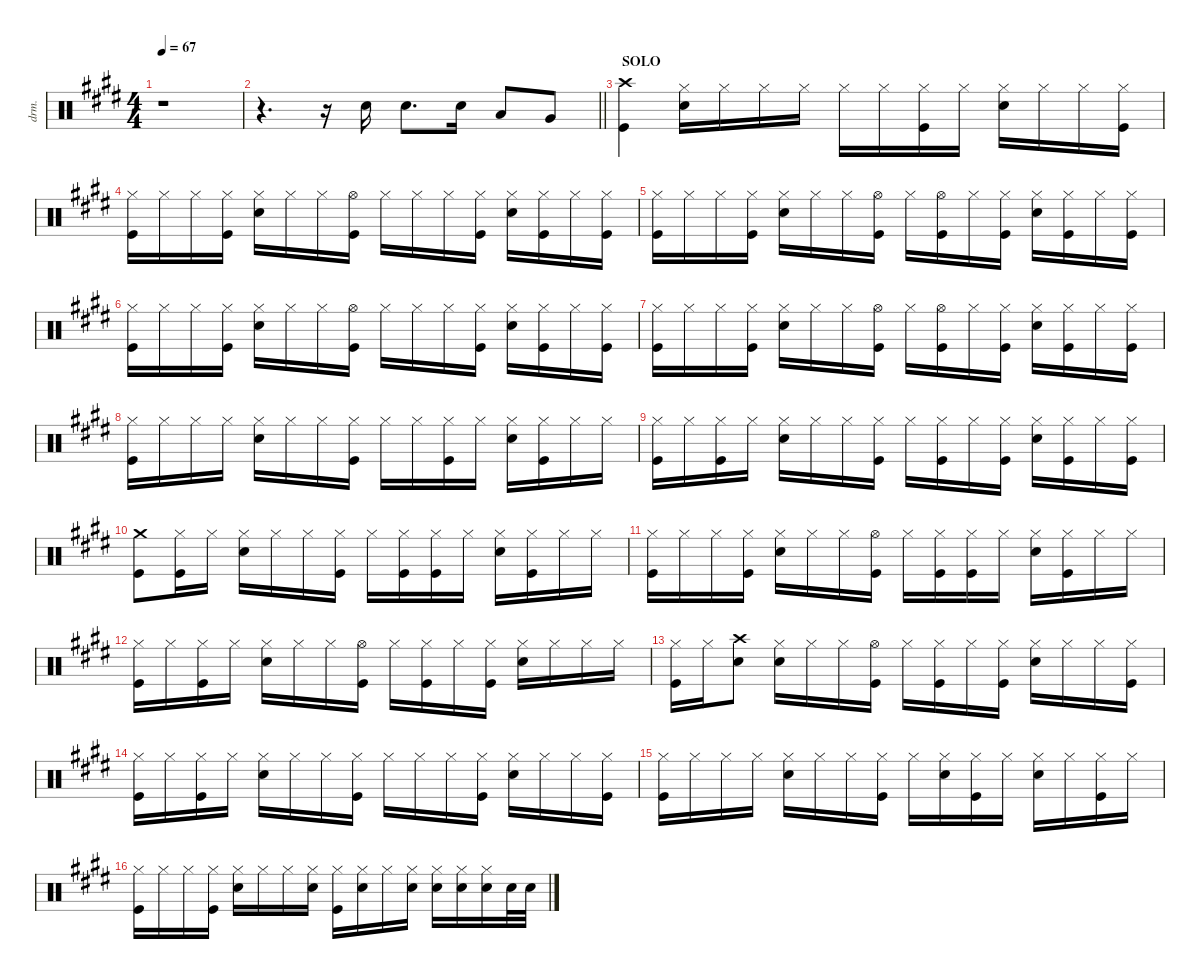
\defaultSystemsLayout 4
\hideDynamics
\bracketExtendMode groupsimilarinstruments
\otherSystemsTrackNameOrientation horizontal
\track ("Drums" "drm.") {defaultSystemsLayout 4 instrument percussion}
\staff {score}
\articulation defaults
\ts (4 4)
\tempo 67
\clef neutral
\ks c#minor
r.1{dy mf beam Down} |
\barLineRight lightlight
r.4{d beam Down} r.16{beam Down} "Snare (hit) 2"{acc forcenatural}.16{dy f beam Down} "Snare (hit) 2"{acc forcenatural}.8{d dy ff beam Down} "Snare (hit) 2"{acc forcenatural}.16{dy f beam Down} "Low Tom (hit)"{acc forcenatural}.8{dy fff beam Up} "Very Low Tom (hit)"{acc forcenatural}.8{beam Up} |
\section ("" " SOLO")
("Crash high (hit)"{acc forcenatural} "Kick (hit)"{acc forcenatural}).4{dy ff beam Down} ("Hi-Hat (closed)"{acc forcenatural} "Snare (hit) 2"{acc forcenatural}).16{dy f beam Down} "Hi-Hat (closed)"{acc forcenatural}.16{beam Down} "Hi-Hat (closed)"{acc forcenatural}.16{beam Down} "Hi-Hat (closed)"{acc forcenatural}.16{beam Down} "Hi-Hat (closed)"{acc forcenatural}.16{beam Down} "Hi-Hat (closed)"{acc forcenatural}.16{beam Down} ("Hi-Hat (closed)"{acc forcenatural} "Kick (hit)"{acc forcenatural}).16{beam Down} "Hi-Hat (closed)"{acc forcenatural}.16{beam Down} ("Hi-Hat (closed)"{acc forcenatural} "Snare (hit) 2"{acc forcenatural}).16{beam Down} "Hi-Hat (closed)"{acc forcenatural}.16{beam Down} "Hi-Hat (closed)"{acc forcenatural}.16{beam Down} ("Hi-Hat (closed)"{acc forcenatural} "Kick (hit)"{acc forcenatural}).16{beam Down} |
("Kick (hit)"{acc forcenatural} "Hi-Hat (closed)"{acc forcenatural}).16{beam Down} "Hi-Hat (closed)"{acc forcenatural}.16{beam Down} "Hi-Hat (closed)"{acc forcenatural}.16{beam Down} ("Kick (hit)"{acc forcenatural} "Hi-Hat (closed)"{acc forcenatural}).16{beam Down} ("Snare (hit) 2"{acc forcenatural} "Hi-Hat (closed)"{acc forcenatural}).16{beam Down} "Hi-Hat (closed)"{acc forcenatural}.16{beam Down} "Hi-Hat (closed)"{acc forcenatural}.16{beam Down} ("Kick (hit)"{acc forcenatural} "Hi-Hat (open)"{acc forcenatural}).16{beam Down} "Hi-Hat (closed)"{acc forcenatural}.16{beam Down} "Hi-Hat (closed)"{acc forcenatural}.16{beam Down} "Hi-Hat (closed)"{acc forcenatural}.16{beam Down} ("Kick (hit)"{acc forcenatural} "Hi-Hat (closed)"{acc forcenatural}).16{beam Down} ("Snare (hit) 2"{acc forcenatural} "Hi-Hat (closed)"{acc forcenatural}).16{beam Down} ("Kick (hit)"{acc forcenatural} "Hi-Hat (closed)"{acc forcenatural}).16{beam Down} "Hi-Hat (closed)"{acc forcenatural}.16{beam Down} ("Kick (hit)"{acc forcenatural} "Hi-Hat (closed)"{acc forcenatural}).16{beam Down} |
("Kick (hit)"{acc forcenatural} "Hi-Hat (closed)"{acc forcenatural}).16{beam Down} "Hi-Hat (closed)"{acc forcenatural}.16{beam Down} "Hi-Hat (closed)"{acc forcenatural}.16{beam Down} ("Kick (hit)"{acc forcenatural} "Hi-Hat (closed)"{acc forcenatural}).16{beam Down} ("Snare (hit) 2"{acc forcenatural} "Hi-Hat (closed)"{acc forcenatural}).16{beam Down} "Hi-Hat (closed)"{acc forcenatural}.16{beam Down} "Hi-Hat (closed)"{acc forcenatural}.16{beam Down} ("Kick (hit)"{acc forcenatural} "Hi-Hat (open)"{acc forcenatural}).16{beam Down} "Hi-Hat (closed)"{acc forcenatural}.16{beam Down} ("Kick (hit)"{acc forcenatural} "Hi-Hat (open)"{acc forcenatural}).16{beam Down} "Hi-Hat (closed)"{acc forcenatural}.16{beam Down} ("Kick (hit)"{acc forcenatural} "Hi-Hat (closed)"{acc forcenatural}).16{beam Down} ("Snare (hit) 2"{acc forcenatural} "Hi-Hat (closed)"{acc forcenatural}).16{beam Down} ("Kick (hit)"{acc forcenatural} "Hi-Hat (closed)"{acc forcenatural}).16{beam Down} "Hi-Hat (closed)"{acc forcenatural}.16{beam Down} ("Kick (hit)"{acc forcenatural} "Hi-Hat (closed)"{acc forcenatural}).16{beam Down} |
("Hi-Hat (closed)"{acc forcenatural} "Kick (hit)"{acc forcenatural}).16{beam Down} "Hi-Hat (closed)"{acc forcenatural}.16{beam Down} "Hi-Hat (closed)"{acc forcenatural}.16{beam Down} ("Hi-Hat (closed)"{acc forcenatural} "Kick (hit)"{acc forcenatural}).16{beam Down} ("Hi-Hat (closed)"{acc forcenatural} "Snare (hit) 2"{acc forcenatural}).16{beam Down} "Hi-Hat (closed)"{acc forcenatural}.16{beam Down} "Hi-Hat (closed)"{acc forcenatural}.16{beam Down} ("Hi-Hat (open)"{acc forcenatural} "Kick (hit)"{acc forcenatural}).16{beam Down} "Hi-Hat (closed)"{acc forcenatural}.16{beam Down} "Hi-Hat (closed)"{acc forcenatural}.16{beam Down} "Hi-Hat (closed)"{acc forcenatural}.16{beam Down} ("Hi-Hat (closed)"{acc forcenatural} "Kick (hit)"{acc forcenatural}).16{beam Down} ("Hi-Hat (closed)"{acc forcenatural} "Snare (hit) 2"{acc forcenatural}).16{beam Down} ("Hi-Hat (closed)"{acc forcenatural} "Kick (hit)"{acc forcenatural}).16{beam Down} "Hi-Hat (closed)"{acc forcenatural}.16{beam Down} ("Hi-Hat (closed)"{acc forcenatural} "Kick (hit)"{acc forcenatural}).16{beam Down} |
("Hi-Hat (closed)"{acc forcenatural} "Kick (hit)"{acc forcenatural}).16{beam Down} "Hi-Hat (closed)"{acc forcenatural}.16{beam Down} "Hi-Hat (closed)"{acc forcenatural}.16{beam Down} ("Hi-Hat (closed)"{acc forcenatural} "Kick (hit)"{acc forcenatural}).16{beam Down} ("Hi-Hat (closed)"{acc forcenatural} "Snare (hit) 2"{acc forcenatural}).16{beam Down} "Hi-Hat (closed)"{acc forcenatural}.16{beam Down} "Hi-Hat (closed)"{acc forcenatural}.16{beam Down} ("Hi-Hat (open)"{acc forcenatural} "Kick (hit)"{acc forcenatural}).16{beam Down} "Hi-Hat (closed)"{acc forcenatural}.16{beam Down} ("Kick (hit)"{acc forcenatural} "Hi-Hat (open)"{acc forcenatural}).16{beam Down} "Hi-Hat (closed)"{acc forcenatural}.16{beam Down} ("Hi-Hat (closed)"{acc forcenatural} "Kick (hit)"{acc forcenatural}).16{beam Down} ("Hi-Hat (closed)"{acc forcenatural} "Snare (hit) 2"{acc forcenatural}).16{beam Down} ("Hi-Hat (closed)"{acc forcenatural} "Kick (hit)"{acc forcenatural}).16{beam Down} "Hi-Hat (closed)"{acc forcenatural}.16{beam Down} ("Hi-Hat (closed)"{acc forcenatural} "Kick (hit)"{acc forcenatural}).16{beam Down} |
("Kick (hit)"{acc forcenatural} "Hi-Hat (closed)"{acc forcenatural}).16{beam Down} "Hi-Hat (closed)"{acc forcenatural}.16{beam Down} "Hi-Hat (closed)"{acc forcenatural}.16{beam Down} "Hi-Hat (closed)"{acc forcenatural}.16{beam Down} ("Snare (hit) 2"{acc forcenatural} "Hi-Hat (closed)"{acc forcenatural}).16{beam Down} "Hi-Hat (closed)"{acc forcenatural}.16{beam Down} "Hi-Hat (closed)"{acc forcenatural}.16{beam Down} ("Hi-Hat (closed)"{acc forcenatural} "Kick (hit)"{acc forcenatural}).16{beam Down} "Hi-Hat (closed)"{acc forcenatural}.16{beam Down} "Hi-Hat (closed)"{acc forcenatural}.16{beam Down} ("Kick (hit)"{acc forcenatural} "Hi-Hat (closed)"{acc forcenatural}).16{beam Down} "Hi-Hat (closed)"{acc forcenatural}.16{beam Down} ("Snare (hit) 2"{acc forcenatural} "Hi-Hat (closed)"{acc forcenatural}).16{beam Down} ("Kick (hit)"{acc forcenatural} "Hi-Hat (closed)"{acc forcenatural}).16{beam Down} "Hi-Hat (closed)"{acc forcenatural}.16{beam Down} "Hi-Hat (closed)"{acc forcenatural}.16{beam Down} |
("Kick (hit)"{acc forcenatural} "Hi-Hat (closed)"{acc forcenatural}).16{beam Down} "Hi-Hat (closed)"{acc forcenatural}.16{beam Down} ("Kick (hit)"{acc forcenatural} "Hi-Hat (closed)"{acc forcenatural}).16{beam Down} "Hi-Hat (closed)"{acc forcenatural}.16{beam Down} ("Snare (hit) 2"{acc forcenatural} "Hi-Hat (closed)"{acc forcenatural}).16{beam Down} "Hi-Hat (closed)"{acc forcenatural}.16{beam Down} "Hi-Hat (closed)"{acc forcenatural}.16{beam Down} ("Hi-Hat (closed)"{acc forcenatural} "Kick (hit)"{acc forcenatural}).16{beam Down} "Hi-Hat (closed)"{acc forcenatural}.16{beam Down} ("Kick (hit)"{acc forcenatural} "Hi-Hat (closed)"{acc forcenatural}).16{beam Down} "Hi-Hat (closed)"{acc forcenatural}.16{beam Down} ("Kick (hit)"{acc forcenatural} "Hi-Hat (closed)"{acc forcenatural}).16{beam Down} ("Snare (hit) 2"{acc forcenatural} "Hi-Hat (closed)"{acc forcenatural}).16{beam Down} ("Kick (hit)"{acc forcenatural} "Hi-Hat (closed)"{acc forcenatural}).16{beam Down} "Hi-Hat (closed)"{acc forcenatural}.16{beam Down} ("Kick (hit)"{acc forcenatural} "Hi-Hat (closed)"{acc forcenatural}).16{beam Down} |
("Crash medium (hit)"{acc forcenatural} "Kick (hit)"{acc forcenatural}).8{beam Down} ("Kick (hit)"{acc forcenatural} "Hi-Hat (closed)"{acc forcenatural}).16{beam Down} "Hi-Hat (closed)"{acc forcenatural}.16{beam Down} ("Snare (hit) 2"{acc forcenatural} "Hi-Hat (closed)"{acc forcenatural}).16{beam Down} "Hi-Hat (closed)"{acc forcenatural}.16{beam Down} "Hi-Hat (closed)"{acc forcenatural}.16{beam Down} ("Hi-Hat (closed)"{acc forcenatural} "Kick (hit)"{acc forcenatural}).16{beam Down} "Hi-Hat (closed)"{acc forcenatural}.16{beam Down} ("Kick (hit)"{acc forcenatural} "Hi-Hat (closed)"{acc forcenatural}).16{beam Down} ("Kick (hit)"{acc forcenatural} "Hi-Hat (closed)"{acc forcenatural}).16{beam Down} "Hi-Hat (closed)"{acc forcenatural}.16{beam Down} ("Snare (hit) 2"{acc forcenatural} "Hi-Hat (closed)"{acc forcenatural}).16{beam Down} ("Kick (hit)"{acc forcenatural} "Hi-Hat (closed)"{acc forcenatural}).16{beam Down} "Hi-Hat (closed)"{acc forcenatural}.16{beam Down} "Hi-Hat (closed)"{acc forcenatural}.16{beam Down} |
("Kick (hit)"{acc forcenatural} "Hi-Hat (closed)"{acc forcenatural}).16{beam Down} "Hi-Hat (closed)"{acc forcenatural}.16{beam Down} "Hi-Hat (closed)"{acc forcenatural}.16{beam Down} ("Kick (hit)"{acc forcenatural} "Hi-Hat (closed)"{acc forcenatural}).16{beam Down} ("Snare (hit) 2"{acc forcenatural} "Hi-Hat (closed)"{acc forcenatural}).16{beam Down} "Hi-Hat (closed)"{acc forcenatural}.16{beam Down} "Hi-Hat (closed)"{acc forcenatural}.16{beam Down} ("Hi-Hat (open)"{acc forcenatural} "Kick (hit)"{acc forcenatural}).16{beam Down} "Hi-Hat (closed)"{acc forcenatural}.16{beam Down} ("Kick (hit)"{acc forcenatural} "Hi-Hat (closed)"{acc forcenatural}).16{beam Down} ("Kick (hit)"{acc forcenatural} "Hi-Hat (closed)"{acc forcenatural}).16{beam Down} "Hi-Hat (closed)"{acc forcenatural}.16{beam Down} ("Snare (hit) 2"{acc forcenatural} "Hi-Hat (closed)"{acc forcenatural}).16{beam Down} ("Kick (hit)"{acc forcenatural} "Hi-Hat (closed)"{acc forcenatural}).16{beam Down} "Hi-Hat (closed)"{acc forcenatural}.16{beam Down} "Hi-Hat (closed)"{acc forcenatural}.16{beam Down} |
("Kick (hit)"{acc forcenatural} "Hi-Hat (closed)"{acc forcenatural}).16{beam Down} "Hi-Hat (closed)"{acc forcenatural}.16{beam Down} ("Kick (hit)"{acc forcenatural} "Hi-Hat (closed)"{acc forcenatural}).16{beam Down} "Hi-Hat (closed)"{acc forcenatural}.16{beam Down} ("Snare (hit) 2"{acc forcenatural} "Hi-Hat (closed)"{acc forcenatural}).16{beam Down} "Hi-Hat (closed)"{acc forcenatural}.16{beam Down} "Hi-Hat (closed)"{acc forcenatural}.16{beam Down} ("Hi-Hat (open)"{acc forcenatural} "Kick (hit)"{acc forcenatural}).16{beam Down} "Hi-Hat (closed)"{acc forcenatural}.16{beam Down} ("Kick (hit)"{acc forcenatural} "Hi-Hat (closed)"{acc forcenatural}).16{beam Down} "Hi-Hat (closed)"{acc forcenatural}.16{beam Down} ("Kick (hit)"{acc forcenatural} "Hi-Hat (closed)"{acc forcenatural}).16{beam Down} ("Snare (hit) 2"{acc forcenatural} "Hi-Hat (closed)"{acc forcenatural}).16{beam Down} "Hi-Hat (closed)"{acc forcenatural}.16{beam Down} "Hi-Hat (closed)"{acc forcenatural}.16{beam Down} "Hi-Hat (closed)"{acc forcenatural}.16{beam Down} |
("Kick (hit)"{acc forcenatural} "Hi-Hat (closed)"{acc forcenatural}).16{beam Down} "Hi-Hat (closed)"{acc forcenatural}.16{beam Down} ("Snare (hit) 2"{acc forcenatural} "Crash high (hit)"{acc forcenatural}).8{beam Down} ("Snare (hit) 2"{acc forcenatural} "Hi-Hat (closed)"{acc forcenatural}).16{beam Down} "Hi-Hat (closed)"{acc forcenatural}.16{beam Down} "Hi-Hat (closed)"{acc forcenatural}.16{beam Down} ("Kick (hit)"{acc forcenatural} "Hi-Hat (open)"{acc forcenatural}).16{beam Down} "Hi-Hat (closed)"{acc forcenatural}.16{beam Down} ("Kick (hit)"{acc forcenatural} "Hi-Hat (closed)"{acc forcenatural}).16{beam Down} "Hi-Hat (closed)"{acc forcenatural}.16{beam Down} ("Kick (hit)"{acc forcenatural} "Hi-Hat (closed)"{acc forcenatural}).16{beam Down} ("Snare (hit) 2"{acc forcenatural} "Hi-Hat (closed)"{acc forcenatural}).16{beam Down} "Hi-Hat (closed)"{acc forcenatural}.16{beam Down} "Hi-Hat (closed)"{acc forcenatural}.16{beam Down} ("Kick (hit)"{acc forcenatural} "Hi-Hat (closed)"{acc forcenatural}).16{beam Down} |
("Kick (hit)"{acc forcenatural} "Hi-Hat (closed)"{acc forcenatural}).16{beam Down} "Hi-Hat (closed)"{acc forcenatural}.16{beam Down} ("Kick (hit)"{acc forcenatural} "Hi-Hat (closed)"{acc forcenatural}).16{beam Down} "Hi-Hat (closed)"{acc forcenatural}.16{beam Down} ("Snare (hit) 2"{acc forcenatural} "Hi-Hat (closed)"{acc forcenatural}).16{beam Down} "Hi-Hat (closed)"{acc forcenatural}.16{beam Down} "Hi-Hat (closed)"{acc forcenatural}.16{beam Down} ("Hi-Hat (closed)"{acc forcenatural} "Kick (hit)"{acc forcenatural}).16{beam Down} "Hi-Hat (closed)"{acc forcenatural}.16{beam Down} "Hi-Hat (closed)"{acc forcenatural}.16{beam Down} "Hi-Hat (closed)"{acc forcenatural}.16{beam Down} ("Kick (hit)"{acc forcenatural} "Hi-Hat (closed)"{acc forcenatural}).16{beam Down} ("Snare (hit) 2"{acc forcenatural} "Hi-Hat (closed)"{acc forcenatural}).16{beam Down} "Hi-Hat (closed)"{acc forcenatural}.16{beam Down} "Hi-Hat (closed)"{acc forcenatural}.16{beam Down} ("Kick (hit)"{acc forcenatural} "Hi-Hat (closed)"{acc forcenatural}).16{beam Down} |
("Kick (hit)"{acc forcenatural} "Hi-Hat (closed)"{acc forcenatural}).16{beam Down} "Hi-Hat (closed)"{acc forcenatural}.16{beam Down} "Hi-Hat (closed)"{acc forcenatural}.16{beam Down} "Hi-Hat (closed)"{acc forcenatural}.16{beam Down} ("Snare (hit) 2"{acc forcenatural} "Hi-Hat (closed)"{acc forcenatural}).16{beam Down} "Hi-Hat (closed)"{acc forcenatural}.16{beam Down} "Hi-Hat (closed)"{acc forcenatural}.16{beam Down} ("Hi-Hat (closed)"{acc forcenatural} "Kick (hit)"{acc forcenatural}).16{beam Down} "Hi-Hat (closed)"{acc forcenatural}.16{beam Down} ("Snare (hit) 2"{acc forcenatural} "Hi-Hat (closed)"{acc forcenatural}).16{beam Down} ("Kick (hit)"{acc forcenatural} "Hi-Hat (closed)"{acc forcenatural}).16{beam Down} "Hi-Hat (closed)"{acc forcenatural}.16{beam Down} ("Snare (hit) 2"{acc forcenatural} "Hi-Hat (closed)"{acc forcenatural}).16{beam Down} "Hi-Hat (closed)"{acc forcenatural}.16{beam Down} ("Kick (hit)"{acc forcenatural} "Hi-Hat (closed)"{acc forcenatural}).16{beam Down} "Hi-Hat (closed)"{acc forcenatural}.16{beam Down} |
("Kick (hit)"{acc forcenatural} "Hi-Hat (closed)"{acc forcenatural}).16{beam Down} "Hi-Hat (closed)"{acc forcenatural}.16{beam Down} "Hi-Hat (closed)"{acc forcenatural}.16{beam Down} ("Kick (hit)"{acc forcenatural} "Hi-Hat (closed)"{acc forcenatural}).16{beam Down} ("Snare (hit) 2"{acc forcenatural} "Hi-Hat (closed)"{acc forcenatural}).16{beam Down} "Hi-Hat (closed)"{acc forcenatural}.16{beam Down} "Hi-Hat (closed)"{acc forcenatural}.16{beam Down} ("Snare (hit) 2"{acc forcenatural} "Hi-Hat (closed)"{acc forcenatural}).16{beam Down} ("Kick (hit)"{acc forcenatural} "Hi-Hat (closed)"{acc forcenatural}).16{beam Down} ("Snare (hit) 2"{acc forcenatural} "Hi-Hat (closed)"{acc forcenatural}).16{beam Down} "Hi-Hat (closed)"{acc forcenatural}.16{beam Down} ("Snare (hit) 2"{acc forcenatural} "Hi-Hat (closed)"{acc forcenatural}).16{beam Down} ("Snare (hit) 2"{acc forcenatural} "Hi-Hat (closed)"{acc forcenatural}).16{beam Down} ("Snare (hit) 2"{acc forcenatural} "Hi-Hat (closed)"{acc forcenatural}).16{beam Down} ("Snare (hit) 2"{acc forcenatural} "Hi-Hat (closed)"{acc forcenatural}).16{beam Down} "Snare (hit) 2"{acc forcenatural}.32{beam Down} "Snare (hit) 2"{acc forcenatural}.32{beam Down}
